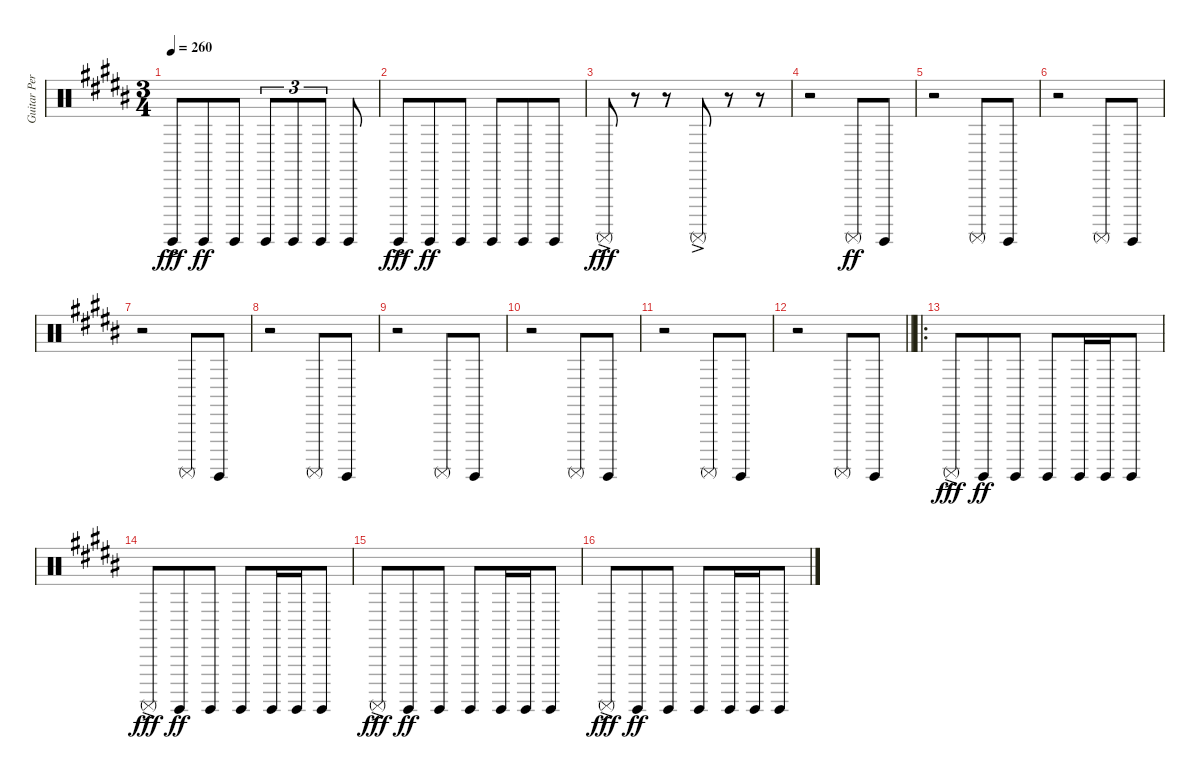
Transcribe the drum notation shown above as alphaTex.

\track ("Guitar Percussion Noises" "Guitar Per") {instrument percussion}
\staff {score}
\articulation defaults
\ts (3 4)
\tempo 260
\clef neutral
\ks b "Surdo (hit)"{ac}.8{dy fff} "Surdo (hit)".8{dy ff beam merge} "Surdo (hit)".8{beam split} "Surdo (hit)".8{tu (3 2)} "Surdo (hit)".8{tu (3 2) beam merge} "Surdo (hit)".8{tu (3 2) beam split} "Surdo (hit)".8
|
"Surdo (hit)"{ac}.8{dy fff} "Surdo (hit)".8{dy ff beam merge} "Surdo (hit)".8{beam split} "Surdo (hit)".8{beam merge} "Surdo (hit)".8{beam merge} "Surdo (hit)".8 |
"Surdo (mute)"{ac}.8{dy fff} r.8 r.8 "Surdo (mute)"{ac}.8 r.8 r.8 |
r.2 "Surdo (mute)".8{dy ff} "Surdo (hit)".8 |
r.2 "Surdo (mute)".8 "Surdo (hit)".8 |
r.2 "Surdo (mute)".8 "Surdo (hit)".8 |
r.2 "Surdo (mute)".8 "Surdo (hit)".8 |
r.2 "Surdo (mute)".8 "Surdo (hit)".8 |
r.2 "Surdo (mute)".8 "Surdo (hit)".8 |
r.2 "Surdo (mute)".8 "Surdo (hit)".8 |
r.2 "Surdo (mute)".8 "Surdo (hit)".8 |
\barLineRight lightlight
r.2 "Surdo (mute)".8 "Surdo (hit)".8 |
\ro "Surdo (mute)"{ac}.8{dy fff} "Surdo (hit)".8{dy ff beam merge} "Surdo (hit)".8{beam split} "Surdo (hit)".8{beam merge} "Surdo (hit)".16{beam merge} "Surdo (hit)".16 "Surdo (hit)".8
|
"Surdo (mute)"{ac}.8{dy fff} "Surdo (hit)".8{dy ff beam merge} "Surdo (hit)".8{beam split} "Surdo (hit)".8{beam merge} "Surdo (hit)".16{beam merge} "Surdo (hit)".16 "Surdo (hit)".8 |
"Surdo (mute)"{ac}.8{dy fff} "Surdo (hit)".8{dy ff beam merge} "Surdo (hit)".8{beam split} "Surdo (hit)".8{beam merge} "Surdo (hit)".16{beam merge} "Surdo (hit)".16 "Surdo (hit)".8 |
"Surdo (mute)"{ac}.8{dy fff} "Surdo (hit)".8{dy ff beam merge} "Surdo (hit)".8{beam split} "Surdo (hit)".8{beam merge} "Surdo (hit)".16{beam merge} "Surdo (hit)".16 "Surdo (hit)".8
